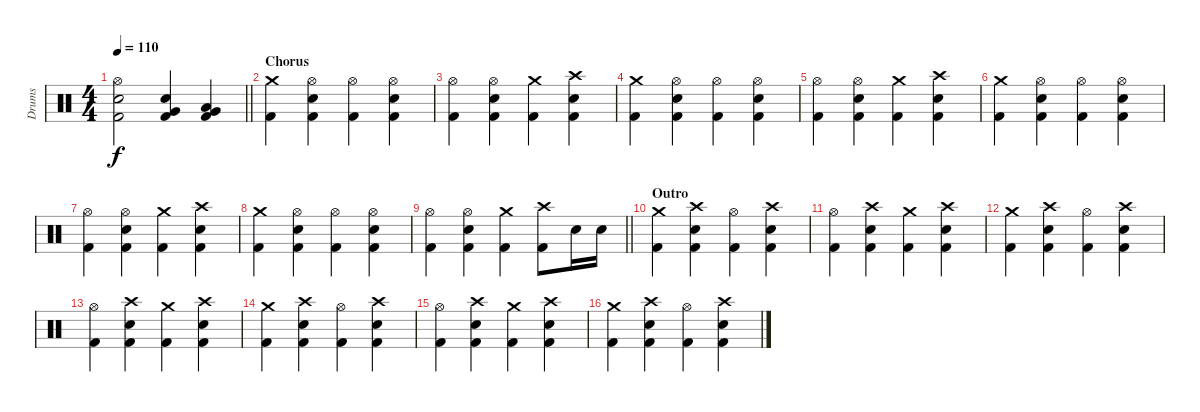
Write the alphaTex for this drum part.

\track ("Drums" "Drums") {instrument percussion}
\staff {score}
\articulation defaults
\ts (4 4)
\tempo 110
\clef neutral
\barLineRight lightlight
\ks c
("Hi-Hat (open)" "Electric Snare (hit)" "Kick (hit) 2").2{dy f} ("Very Low Tom (hit)" "Electric Snare (hit)" "Kick (hit) 2").4 ("Low Floor Tom (hit)" "Very Low Tom (hit)" "Kick (hit) 2").4 |
\section ("" "Chorus")
("Crash medium (hit)" "Kick (hit) 2").4 ("Hi-Hat (open)" "Electric Snare (hit)" "Kick (hit) 2").4 ("Hi-Hat (open)" "Kick (hit) 2").4 ("Hi-Hat (open)" "Electric Snare (hit)" "Kick (hit) 2").4 |
("Hi-Hat (open)" "Kick (hit) 2").4 ("Hi-Hat (open)" "Electric Snare (hit)" "Kick (hit) 2").4 ("Crash medium (hit)" "Kick (hit) 2").4 ("Crash high (hit)" "Electric Snare (hit)" "Kick (hit) 2").4 |
("Crash medium (hit)" "Kick (hit) 2").4 ("Hi-Hat (open)" "Electric Snare (hit)" "Kick (hit) 2").4 ("Hi-Hat (open)" "Kick (hit) 2").4 ("Hi-Hat (open)" "Electric Snare (hit)" "Kick (hit) 2").4 |
("Hi-Hat (open)" "Kick (hit) 2").4 ("Hi-Hat (open)" "Electric Snare (hit)" "Kick (hit) 2").4 ("Crash medium (hit)" "Kick (hit) 2").4 ("Crash high (hit)" "Electric Snare (hit)" "Kick (hit) 2").4 |
("Crash medium (hit)" "Kick (hit) 2").4 ("Hi-Hat (open)" "Electric Snare (hit)" "Kick (hit) 2").4 ("Hi-Hat (open)" "Kick (hit) 2").4 ("Hi-Hat (open)" "Electric Snare (hit)" "Kick (hit) 2").4 |
("Hi-Hat (open)" "Kick (hit) 2").4 ("Hi-Hat (open)" "Electric Snare (hit)" "Kick (hit) 2").4 ("Crash medium (hit)" "Kick (hit) 2").4 ("Crash high (hit)" "Electric Snare (hit)" "Kick (hit) 2").4 |
("Crash medium (hit)" "Kick (hit) 2").4 ("Hi-Hat (open)" "Electric Snare (hit)" "Kick (hit) 2").4 ("Hi-Hat (open)" "Kick (hit) 2").4 ("Hi-Hat (open)" "Electric Snare (hit)" "Kick (hit) 2").4 |
\barLineRight lightlight
("Hi-Hat (open)" "Kick (hit) 2").4 ("Hi-Hat (open)" "Electric Snare (hit)" "Kick (hit) 2").4 ("Crash medium (hit)" "Kick (hit) 2").4 ("Crash high (hit)" "Kick (hit) 2").8 "Electric Snare (hit)".16 "Electric Snare (hit)".16 |
\section ("" "Outro")
("Crash medium (hit)" "Kick (hit) 2").4 ("Crash high (hit)" "Electric Snare (hit)" "Kick (hit) 2").4 ("Hi-Hat (open)" "Kick (hit) 2").4 ("Crash high (hit)" "Electric Snare (hit)" "Kick (hit) 2").4 |
("Hi-Hat (open)" "Kick (hit) 2").4 ("Crash high (hit)" "Electric Snare (hit)" "Kick (hit) 2").4 ("Crash medium (hit)" "Kick (hit) 2").4 ("Crash high (hit)" "Electric Snare (hit)" "Kick (hit) 2").4 |
("Crash medium (hit)" "Kick (hit) 2").4 ("Crash high (hit)" "Electric Snare (hit)" "Kick (hit) 2").4 ("Hi-Hat (open)" "Kick (hit) 2").4 ("Crash high (hit)" "Electric Snare (hit)" "Kick (hit) 2").4 |
("Hi-Hat (open)" "Kick (hit) 2").4 ("Crash high (hit)" "Electric Snare (hit)" "Kick (hit) 2").4 ("Crash medium (hit)" "Kick (hit) 2").4 ("Crash high (hit)" "Electric Snare (hit)" "Kick (hit) 2").4 |
("Crash medium (hit)" "Kick (hit) 2").4 ("Crash high (hit)" "Electric Snare (hit)" "Kick (hit) 2").4 ("Hi-Hat (open)" "Kick (hit) 2").4 ("Crash high (hit)" "Electric Snare (hit)" "Kick (hit) 2").4 |
("Hi-Hat (open)" "Kick (hit) 2").4 ("Crash high (hit)" "Electric Snare (hit)" "Kick (hit) 2").4 ("Crash medium (hit)" "Kick (hit) 2").4 ("Crash high (hit)" "Electric Snare (hit)" "Kick (hit) 2").4 |
("Crash medium (hit)" "Kick (hit) 2").4 ("Crash high (hit)" "Electric Snare (hit)" "Kick (hit) 2").4 ("Hi-Hat (open)" "Kick (hit) 2").4 ("Crash high (hit)" "Electric Snare (hit)" "Kick (hit) 2").4
